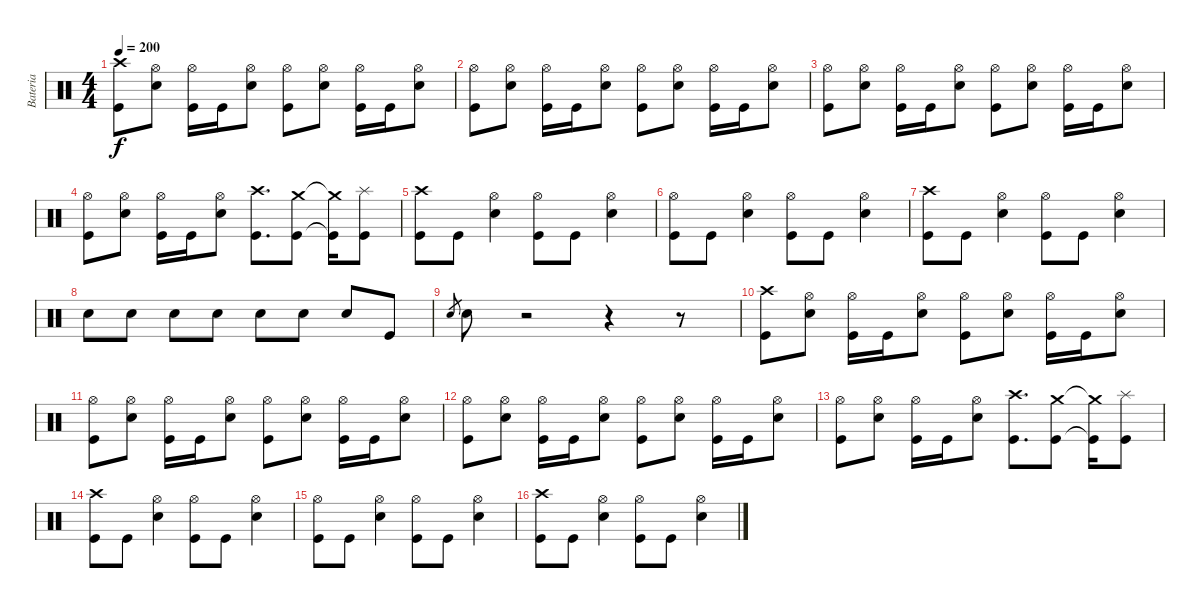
\track ("Bateria" "Bateria") {instrument percussion}
\staff {score}
\articulation defaults
\ts (4 4)
\tempo 200
\clef neutral
\ks c
("Crash high (hit)" "Kick (hit)").8{dy f} ("Hi-Hat (open)" "Snare (hit) 2").8 ("Hi-Hat (open)" "Kick (hit)").16 "Kick (hit)".16 ("Hi-Hat (open)" "Snare (hit) 2").8 ("Hi-Hat (open)" "Kick (hit)").8 ("Hi-Hat (open)" "Snare (hit) 2").8 ("Hi-Hat (open)" "Kick (hit)").16 "Kick (hit)".16 ("Hi-Hat (open)" "Snare (hit) 2").8 |
("Hi-Hat (open)" "Kick (hit)").8 ("Hi-Hat (open)" "Snare (hit) 2").8 ("Hi-Hat (open)" "Kick (hit)").16 "Kick (hit)".16 ("Hi-Hat (open)" "Snare (hit) 2").8 ("Hi-Hat (open)" "Kick (hit)").8 ("Hi-Hat (open)" "Snare (hit) 2").8 ("Hi-Hat (open)" "Kick (hit)").16 "Kick (hit)".16 ("Hi-Hat (open)" "Snare (hit) 2").8 |
("Hi-Hat (open)" "Kick (hit)").8 ("Hi-Hat (open)" "Snare (hit) 2").8 ("Hi-Hat (open)" "Kick (hit)").16 "Kick (hit)".16 ("Hi-Hat (open)" "Snare (hit) 2").8 ("Hi-Hat (open)" "Kick (hit)").8 ("Hi-Hat (open)" "Snare (hit) 2").8 ("Hi-Hat (open)" "Kick (hit)").16 "Kick (hit)".16 ("Hi-Hat (open)" "Snare (hit) 2").8 |
("Hi-Hat (open)" "Kick (hit)").8 ("Hi-Hat (open)" "Snare (hit) 2").8 ("Hi-Hat (open)" "Kick (hit)").16 "Kick (hit)".16 ("Hi-Hat (open)" "Snare (hit) 2").8 ("Crash high (hit)" "Kick (hit)").8{d} ("Crash medium (hit)" "Kick (hit)").8 ("Crash medium (hit)"{t} "Kick (hit)"{t}).16 ("Splash (hit)" "Kick (hit)").8 |
("Crash high (hit)" "Kick (hit)").8 "Kick (hit)".8 ("Hi-Hat (open)" "Snare (hit) 2").4 ("Hi-Hat (open)" "Kick (hit)").8 "Kick (hit)".8 ("Hi-Hat (open)" "Snare (hit) 2").4 |
("Hi-Hat (open)" "Kick (hit)").8 "Kick (hit)".8 ("Hi-Hat (open)" "Snare (hit) 2").4 ("Hi-Hat (open)" "Kick (hit)").8 "Kick (hit)".8 ("Hi-Hat (open)" "Snare (hit) 2").4 |
("Crash high (hit)" "Kick (hit)").8 "Kick (hit)".8 ("Hi-Hat (open)" "Snare (hit) 2").4 ("Hi-Hat (open)" "Kick (hit)").8 "Kick (hit)".8 ("Hi-Hat (open)" "Snare (hit) 2").4 |
"Snare (hit) 2".8 "Snare (hit) 2".8 "Snare (hit) 2".8 "Snare (hit) 2".8 "Snare (hit) 2".8 "Snare (hit) 2".8 "Snare (hit) 2".8 "Kick (hit)".8 |
"Snare (hit) 2".8{gr} "Snare (hit) 2".8 r.2 r.4 r.8 |
("Crash high (hit)" "Kick (hit)").8 ("Hi-Hat (open)" "Snare (hit) 2").8 ("Hi-Hat (open)" "Kick (hit)").16 "Kick (hit)".16 ("Hi-Hat (open)" "Snare (hit) 2").8 ("Hi-Hat (open)" "Kick (hit)").8 ("Hi-Hat (open)" "Snare (hit) 2").8 ("Hi-Hat (open)" "Kick (hit)").16 "Kick (hit)".16 ("Hi-Hat (open)" "Snare (hit) 2").8 |
("Hi-Hat (open)" "Kick (hit)").8 ("Hi-Hat (open)" "Snare (hit) 2").8 ("Hi-Hat (open)" "Kick (hit)").16 "Kick (hit)".16 ("Hi-Hat (open)" "Snare (hit) 2").8 ("Hi-Hat (open)" "Kick (hit)").8 ("Hi-Hat (open)" "Snare (hit) 2").8 ("Hi-Hat (open)" "Kick (hit)").16 "Kick (hit)".16 ("Hi-Hat (open)" "Snare (hit) 2").8 |
("Hi-Hat (open)" "Kick (hit)").8 ("Hi-Hat (open)" "Snare (hit) 2").8 ("Hi-Hat (open)" "Kick (hit)").16 "Kick (hit)".16 ("Hi-Hat (open)" "Snare (hit) 2").8 ("Hi-Hat (open)" "Kick (hit)").8 ("Hi-Hat (open)" "Snare (hit) 2").8 ("Hi-Hat (open)" "Kick (hit)").16 "Kick (hit)".16 ("Hi-Hat (open)" "Snare (hit) 2").8 |
("Hi-Hat (open)" "Kick (hit)").8 ("Hi-Hat (open)" "Snare (hit) 2").8 ("Hi-Hat (open)" "Kick (hit)").16 "Kick (hit)".16 ("Hi-Hat (open)" "Snare (hit) 2").8 ("Crash high (hit)" "Kick (hit)").8{d} ("Crash medium (hit)" "Kick (hit)").8 ("Crash medium (hit)"{t} "Kick (hit)"{t}).16 ("Splash (hit)" "Kick (hit)").8 |
("Crash high (hit)" "Kick (hit)").8 "Kick (hit)".8 ("Hi-Hat (open)" "Snare (hit) 2").4 ("Hi-Hat (open)" "Kick (hit)").8 "Kick (hit)".8 ("Hi-Hat (open)" "Snare (hit) 2").4 |
("Hi-Hat (open)" "Kick (hit)").8 "Kick (hit)".8 ("Hi-Hat (open)" "Snare (hit) 2").4 ("Hi-Hat (open)" "Kick (hit)").8 "Kick (hit)".8 ("Hi-Hat (open)" "Snare (hit) 2").4 |
("Crash high (hit)" "Kick (hit)").8 "Kick (hit)".8 ("Hi-Hat (open)" "Snare (hit) 2").4 ("Hi-Hat (open)" "Kick (hit)").8 "Kick (hit)".8 ("Hi-Hat (open)" "Snare (hit) 2").4
